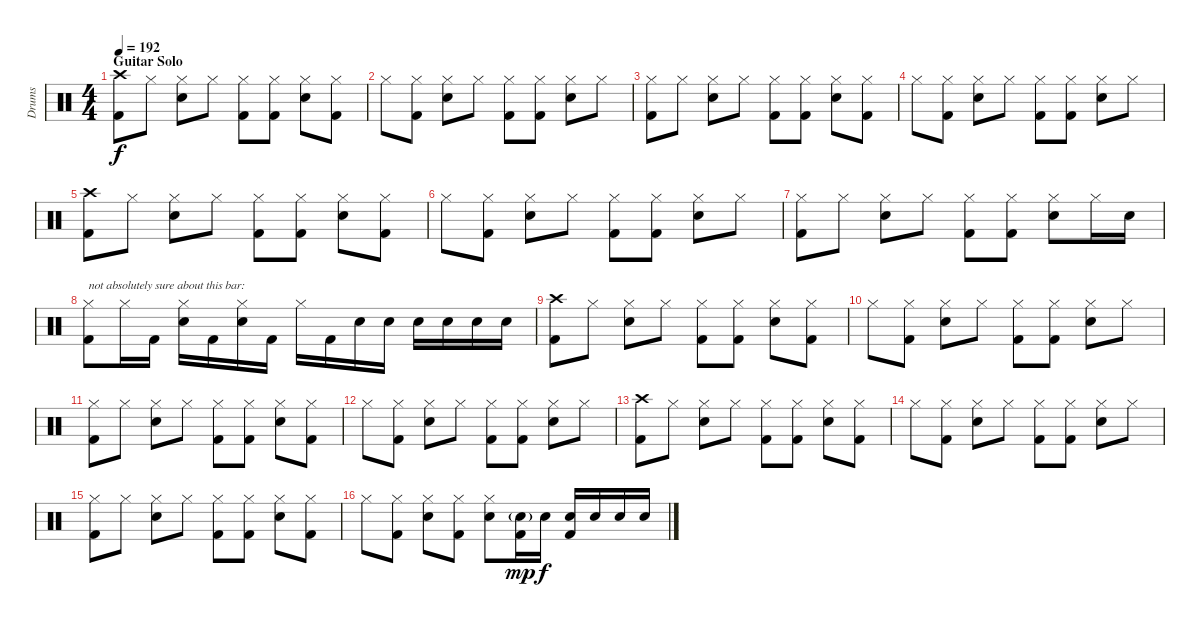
\track ("Drums" "Drums") {instrument percussion}
\staff {score}
\articulation defaults
\ts (4 4)
\section ("" "Guitar Solo")
\tempo 192
\clef neutral
\ks c
("Crash high (hit)" "Kick (hit) 2").8{dy f} "Hi-Hat (closed)".8 ("Hi-Hat (closed)" "Electric Snare (hit)").8 "Hi-Hat (closed)".8 ("Hi-Hat (closed)" "Kick (hit) 2").8 ("Hi-Hat (closed)" "Kick (hit) 2").8 ("Hi-Hat (closed)" "Electric Snare (hit)").8 ("Hi-Hat (closed)" "Kick (hit) 2").8 |
"Hi-Hat (closed)".8 ("Hi-Hat (closed)" "Kick (hit) 2").8 ("Hi-Hat (closed)" "Electric Snare (hit)").8 "Hi-Hat (closed)".8 ("Hi-Hat (closed)" "Kick (hit) 2").8 ("Hi-Hat (closed)" "Kick (hit) 2").8 ("Hi-Hat (closed)" "Electric Snare (hit)").8 "Hi-Hat (closed)".8 |
("Hi-Hat (closed)" "Kick (hit) 2").8 "Hi-Hat (closed)".8 ("Hi-Hat (closed)" "Electric Snare (hit)").8 "Hi-Hat (closed)".8 ("Hi-Hat (closed)" "Kick (hit) 2").8 ("Hi-Hat (closed)" "Kick (hit) 2").8 ("Hi-Hat (closed)" "Electric Snare (hit)").8 ("Hi-Hat (closed)" "Kick (hit) 2").8 |
"Hi-Hat (closed)".8 ("Hi-Hat (closed)" "Kick (hit) 2").8 ("Hi-Hat (closed)" "Electric Snare (hit)").8 "Hi-Hat (closed)".8 ("Hi-Hat (closed)" "Kick (hit) 2").8 ("Hi-Hat (closed)" "Kick (hit) 2").8 ("Hi-Hat (closed)" "Electric Snare (hit)").8 "Hi-Hat (closed)".8 |
("Crash high (hit)" "Kick (hit) 2").8 "Hi-Hat (closed)".8 ("Hi-Hat (closed)" "Electric Snare (hit)").8 "Hi-Hat (closed)".8 ("Hi-Hat (closed)" "Kick (hit) 2").8 ("Hi-Hat (closed)" "Kick (hit) 2").8 ("Hi-Hat (closed)" "Electric Snare (hit)").8 ("Hi-Hat (closed)" "Kick (hit) 2").8 |
"Hi-Hat (closed)".8 ("Hi-Hat (closed)" "Kick (hit) 2").8 ("Hi-Hat (closed)" "Electric Snare (hit)").8 "Hi-Hat (closed)".8 ("Hi-Hat (closed)" "Kick (hit) 2").8 ("Hi-Hat (closed)" "Kick (hit) 2").8 ("Hi-Hat (closed)" "Electric Snare (hit)").8 "Hi-Hat (closed)".8 |
("Hi-Hat (closed)" "Kick (hit) 2").8 "Hi-Hat (closed)".8 ("Hi-Hat (closed)" "Electric Snare (hit)").8 "Hi-Hat (closed)".8 ("Hi-Hat (closed)" "Kick (hit) 2").8 ("Hi-Hat (closed)" "Kick (hit) 2").8 ("Hi-Hat (closed)" "Electric Snare (hit)").8 "Hi-Hat (closed)".16 "Electric Snare (hit)".16 |
("Hi-Hat (closed)" "Kick (hit) 2").8{txt "not absolutely sure about this bar:"} "Hi-Hat (closed)".16 "Kick (hit) 2".16 ("Hi-Hat (closed)" "Electric Snare (hit)").16 "Kick (hit) 2".16 ("Hi-Hat (closed)" "Electric Snare (hit)").16 "Kick (hit) 2".16 "Hi-Hat (closed)".16 "Kick (hit) 2".16 "Electric Snare (hit)".16 "Electric Snare (hit)".16 "Electric Snare (hit)".16 "Electric Snare (hit)".16 "Electric Snare (hit)".16 "Electric Snare (hit)".16 |
("Crash high (hit)" "Kick (hit) 2").8 "Hi-Hat (closed)".8 ("Hi-Hat (closed)" "Electric Snare (hit)").8 "Hi-Hat (closed)".8 ("Hi-Hat (closed)" "Kick (hit) 2").8 ("Hi-Hat (closed)" "Kick (hit) 2").8 ("Hi-Hat (closed)" "Electric Snare (hit)").8 ("Hi-Hat (closed)" "Kick (hit) 2").8 |
"Hi-Hat (closed)".8 ("Hi-Hat (closed)" "Kick (hit) 2").8 ("Hi-Hat (closed)" "Electric Snare (hit)").8 "Hi-Hat (closed)".8 ("Hi-Hat (closed)" "Kick (hit) 2").8 ("Hi-Hat (closed)" "Kick (hit) 2").8 ("Hi-Hat (closed)" "Electric Snare (hit)").8 "Hi-Hat (closed)".8 |
("Hi-Hat (closed)" "Kick (hit) 2").8 "Hi-Hat (closed)".8 ("Hi-Hat (closed)" "Electric Snare (hit)").8 "Hi-Hat (closed)".8 ("Hi-Hat (closed)" "Kick (hit) 2").8 ("Hi-Hat (closed)" "Kick (hit) 2").8 ("Hi-Hat (closed)" "Electric Snare (hit)").8 ("Hi-Hat (closed)" "Kick (hit) 2").8 |
"Hi-Hat (closed)".8 ("Hi-Hat (closed)" "Kick (hit) 2").8 ("Hi-Hat (closed)" "Electric Snare (hit)").8 "Hi-Hat (closed)".8 ("Hi-Hat (closed)" "Kick (hit) 2").8 ("Hi-Hat (closed)" "Kick (hit) 2").8 ("Hi-Hat (closed)" "Electric Snare (hit)").8 "Hi-Hat (closed)".8 |
("Crash high (hit)" "Kick (hit) 2").8 "Hi-Hat (closed)".8 ("Hi-Hat (closed)" "Electric Snare (hit)").8 "Hi-Hat (closed)".8 ("Hi-Hat (closed)" "Kick (hit) 2").8 ("Hi-Hat (closed)" "Kick (hit) 2").8 ("Hi-Hat (closed)" "Electric Snare (hit)").8 ("Hi-Hat (closed)" "Kick (hit) 2").8 |
"Hi-Hat (closed)".8 ("Hi-Hat (closed)" "Kick (hit) 2").8 ("Hi-Hat (closed)" "Electric Snare (hit)").8 "Hi-Hat (closed)".8 ("Hi-Hat (closed)" "Kick (hit) 2").8 ("Hi-Hat (closed)" "Kick (hit) 2").8 ("Hi-Hat (closed)" "Electric Snare (hit)").8 "Hi-Hat (closed)".8 |
("Hi-Hat (closed)" "Kick (hit) 2").8 "Hi-Hat (closed)".8 ("Hi-Hat (closed)" "Electric Snare (hit)").8 "Hi-Hat (closed)".8 ("Hi-Hat (closed)" "Kick (hit) 2").8 ("Hi-Hat (closed)" "Kick (hit) 2").8 ("Hi-Hat (closed)" "Electric Snare (hit)").8 ("Hi-Hat (closed)" "Kick (hit) 2").8 |
"Hi-Hat (closed)".8 ("Hi-Hat (closed)" "Kick (hit) 2").8 ("Hi-Hat (closed)" "Electric Snare (hit)").8 ("Hi-Hat (closed)" "Kick (hit) 2").8 ("Hi-Hat (closed)" "Electric Snare (hit)").8 ("Electric Snare (hit)"{g} "Kick (hit) 2").16{dy mp} "Electric Snare (hit)".16{dy f} ("Electric Snare (hit)" "Kick (hit) 2").16 "Electric Snare (hit)".16 "Electric Snare (hit)".16 "Electric Snare (hit)".16
